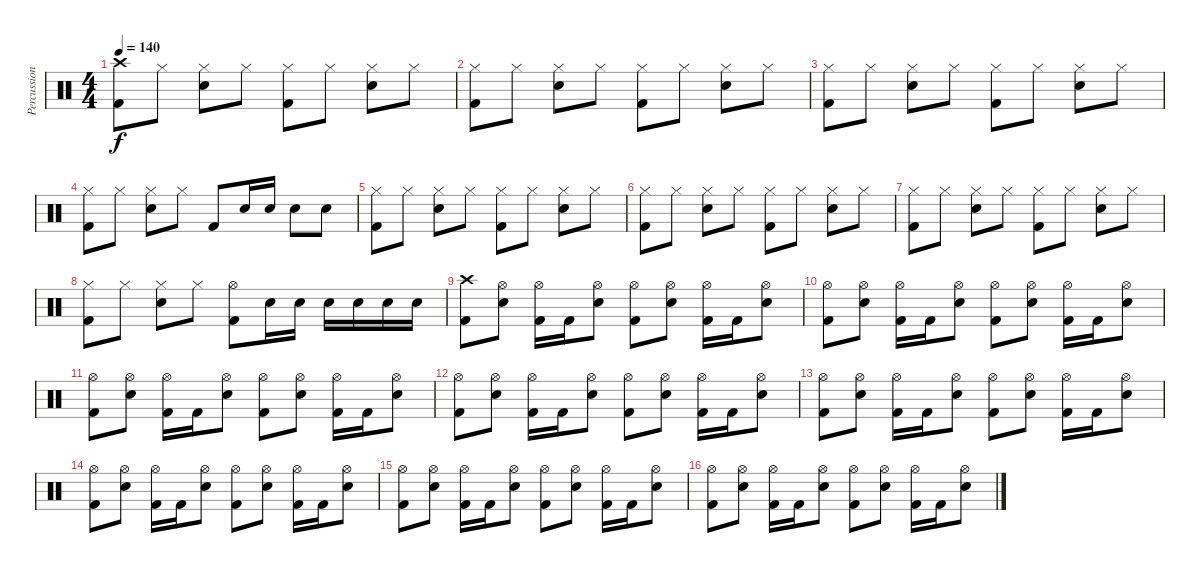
\track ("Percussion" "Percussion") {instrument percussion}
\staff {score}
\articulation defaults
\ts (4 4)
\tempo 140
\clef neutral
\ks c
("Crash high (hit)" "Kick (hit) 2").8{dy f} "Hi-Hat (closed)".8 ("Hi-Hat (closed)" "Electric Snare (hit)").8 "Hi-Hat (closed)".8 ("Hi-Hat (closed)" "Kick (hit) 2").8 "Hi-Hat (closed)".8 ("Hi-Hat (closed)" "Electric Snare (hit)").8 "Hi-Hat (closed)".8 |
("Hi-Hat (closed)" "Kick (hit) 2").8 "Hi-Hat (closed)".8 ("Hi-Hat (closed)" "Electric Snare (hit)").8 "Hi-Hat (closed)".8 ("Hi-Hat (closed)" "Kick (hit) 2").8 "Hi-Hat (closed)".8 ("Hi-Hat (closed)" "Electric Snare (hit)").8 "Hi-Hat (closed)".8 |
("Hi-Hat (closed)" "Kick (hit) 2").8 "Hi-Hat (closed)".8 ("Hi-Hat (closed)" "Electric Snare (hit)").8 "Hi-Hat (closed)".8 ("Hi-Hat (closed)" "Kick (hit) 2").8 "Hi-Hat (closed)".8 ("Hi-Hat (closed)" "Electric Snare (hit)").8 "Hi-Hat (closed)".8 |
("Hi-Hat (closed)" "Kick (hit) 2").8 "Hi-Hat (closed)".8 ("Hi-Hat (closed)" "Electric Snare (hit)").8 "Hi-Hat (closed)".8 "Kick (hit) 2".8 "Electric Snare (hit)".16 "Electric Snare (hit)".16 "Electric Snare (hit)".8 "Electric Snare (hit)".8 |
("Hi-Hat (closed)" "Kick (hit) 2").8 "Hi-Hat (closed)".8 ("Hi-Hat (closed)" "Electric Snare (hit)").8 "Hi-Hat (closed)".8 ("Hi-Hat (closed)" "Kick (hit) 2").8 "Hi-Hat (closed)".8 ("Hi-Hat (closed)" "Electric Snare (hit)").8 "Hi-Hat (closed)".8 |
("Hi-Hat (closed)" "Kick (hit) 2").8 "Hi-Hat (closed)".8 ("Hi-Hat (closed)" "Electric Snare (hit)").8 "Hi-Hat (closed)".8 ("Hi-Hat (closed)" "Kick (hit) 2").8 "Hi-Hat (closed)".8 ("Hi-Hat (closed)" "Electric Snare (hit)").8 "Hi-Hat (closed)".8 |
("Hi-Hat (closed)" "Kick (hit) 2").8 "Hi-Hat (closed)".8 ("Hi-Hat (closed)" "Electric Snare (hit)").8 "Hi-Hat (closed)".8 ("Hi-Hat (closed)" "Kick (hit) 2").8 "Hi-Hat (closed)".8 ("Hi-Hat (closed)" "Electric Snare (hit)").8 "Hi-Hat (closed)".8 |
("Hi-Hat (closed)" "Kick (hit) 2").8 "Hi-Hat (closed)".8 ("Hi-Hat (closed)" "Electric Snare (hit)").8 "Hi-Hat (closed)".8 ("Hi-Hat (open)" "Kick (hit) 2").8 "Electric Snare (hit)".16 "Electric Snare (hit)".16 "Electric Snare (hit)".16 "Electric Snare (hit)".16 "Electric Snare (hit)".16 "Electric Snare (hit)".16 |
("Crash high (hit)" "Kick (hit) 2").8 ("Hi-Hat (open)" "Electric Snare (hit)").8 ("Hi-Hat (open)" "Kick (hit) 2").16 "Kick (hit) 2".16 ("Hi-Hat (open)" "Electric Snare (hit)").8 ("Hi-Hat (open)" "Kick (hit) 2").8 ("Hi-Hat (open)" "Electric Snare (hit)").8 ("Hi-Hat (open)" "Kick (hit) 2").16 "Kick (hit) 2".16 ("Hi-Hat (open)" "Electric Snare (hit)").8 |
("Hi-Hat (open)" "Kick (hit) 2").8 ("Hi-Hat (open)" "Electric Snare (hit)").8 ("Hi-Hat (open)" "Kick (hit) 2").16 "Kick (hit) 2".16 ("Hi-Hat (open)" "Electric Snare (hit)").8 ("Hi-Hat (open)" "Kick (hit) 2").8 ("Hi-Hat (open)" "Electric Snare (hit)").8 ("Hi-Hat (open)" "Kick (hit) 2").16 "Kick (hit) 2".16 ("Hi-Hat (open)" "Electric Snare (hit)").8 |
("Hi-Hat (open)" "Kick (hit) 2").8 ("Hi-Hat (open)" "Electric Snare (hit)").8 ("Hi-Hat (open)" "Kick (hit) 2").16 "Kick (hit) 2".16 ("Hi-Hat (open)" "Electric Snare (hit)").8 ("Hi-Hat (open)" "Kick (hit) 2").8 ("Hi-Hat (open)" "Electric Snare (hit)").8 ("Hi-Hat (open)" "Kick (hit) 2").16 "Kick (hit) 2".16 ("Hi-Hat (open)" "Electric Snare (hit)").8 |
("Hi-Hat (open)" "Kick (hit) 2").8 ("Hi-Hat (open)" "Electric Snare (hit)").8 ("Hi-Hat (open)" "Kick (hit) 2").16 "Kick (hit) 2".16 ("Hi-Hat (open)" "Electric Snare (hit)").8 ("Hi-Hat (open)" "Kick (hit) 2").8 ("Hi-Hat (open)" "Electric Snare (hit)").8 ("Hi-Hat (open)" "Kick (hit) 2").16 "Kick (hit) 2".16 ("Hi-Hat (open)" "Electric Snare (hit)").8 |
("Hi-Hat (open)" "Kick (hit) 2").8 ("Hi-Hat (open)" "Electric Snare (hit)").8 ("Hi-Hat (open)" "Kick (hit) 2").16 "Kick (hit) 2".16 ("Hi-Hat (open)" "Electric Snare (hit)").8 ("Hi-Hat (open)" "Kick (hit) 2").8 ("Hi-Hat (open)" "Electric Snare (hit)").8 ("Hi-Hat (open)" "Kick (hit) 2").16 "Kick (hit) 2".16 ("Hi-Hat (open)" "Electric Snare (hit)").8 |
("Hi-Hat (open)" "Kick (hit) 2").8 ("Hi-Hat (open)" "Electric Snare (hit)").8 ("Hi-Hat (open)" "Kick (hit) 2").16 "Kick (hit) 2".16 ("Hi-Hat (open)" "Electric Snare (hit)").8 ("Hi-Hat (open)" "Kick (hit) 2").8 ("Hi-Hat (open)" "Electric Snare (hit)").8 ("Hi-Hat (open)" "Kick (hit) 2").16 "Kick (hit) 2".16 ("Hi-Hat (open)" "Electric Snare (hit)").8 |
("Hi-Hat (open)" "Kick (hit) 2").8 ("Hi-Hat (open)" "Electric Snare (hit)").8 ("Hi-Hat (open)" "Kick (hit) 2").16 "Kick (hit) 2".16 ("Hi-Hat (open)" "Electric Snare (hit)").8 ("Hi-Hat (open)" "Kick (hit) 2").8 ("Hi-Hat (open)" "Electric Snare (hit)").8 ("Hi-Hat (open)" "Kick (hit) 2").16 "Kick (hit) 2".16 ("Hi-Hat (open)" "Electric Snare (hit)").8 |
("Hi-Hat (open)" "Kick (hit) 2").8 ("Hi-Hat (open)" "Electric Snare (hit)").8 ("Hi-Hat (open)" "Kick (hit) 2").16 "Kick (hit) 2".16 ("Hi-Hat (open)" "Electric Snare (hit)").8 ("Hi-Hat (open)" "Kick (hit) 2").8 ("Hi-Hat (open)" "Electric Snare (hit)").8 ("Hi-Hat (open)" "Kick (hit) 2").16 "Kick (hit) 2".16 ("Hi-Hat (open)" "Electric Snare (hit)").8
